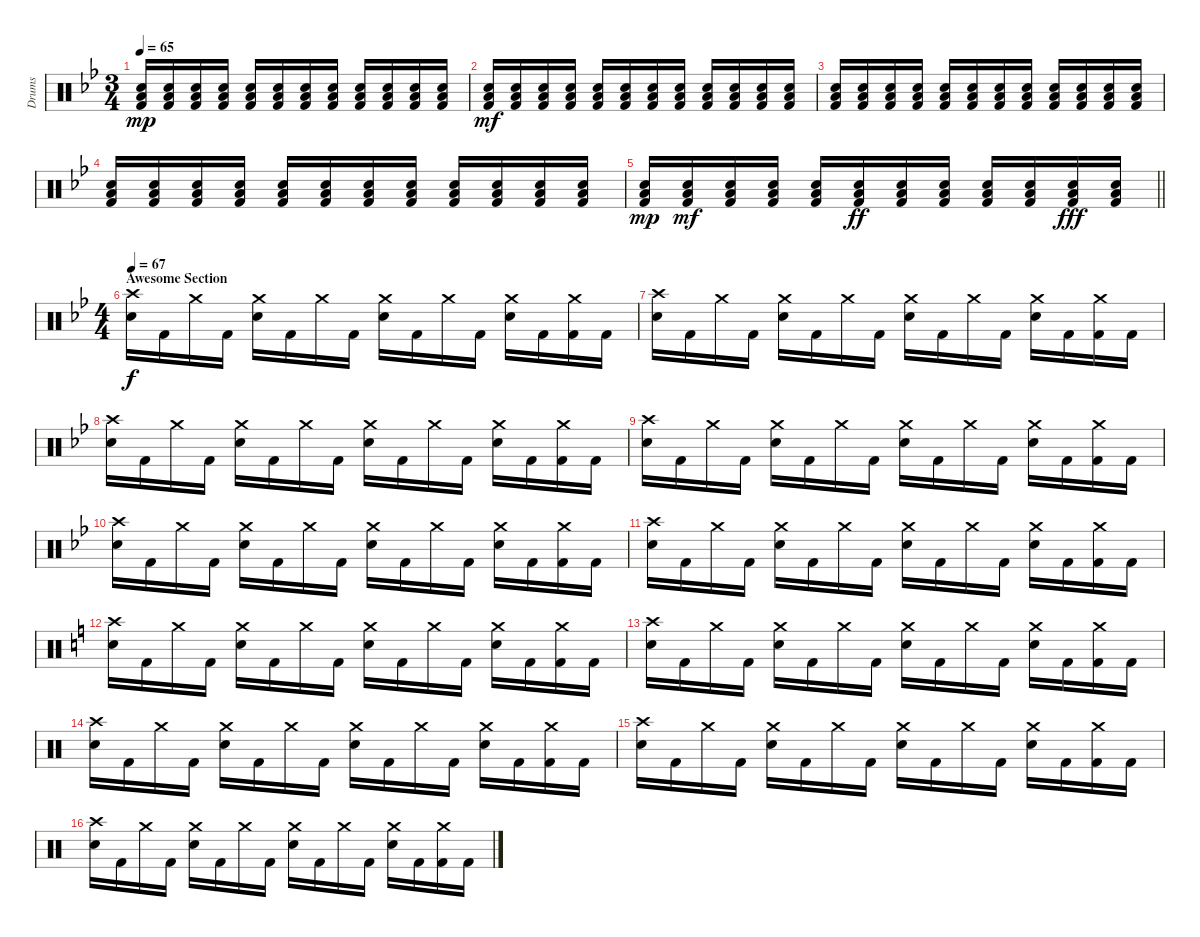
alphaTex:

\track ("Drums" "Drums") {instrument percussion}
\staff {score}
\articulation defaults
\ts (3 4)
\tempo 65
\clef neutral
\ks bb
("Kick (hit) 2" "Electric Snare (hit)" "Low Tom (hit)").16{dy mp} ("Kick (hit) 2" "Electric Snare (hit)" "Low Tom (hit)").16 ("Kick (hit) 2" "Electric Snare (hit)" "Low Tom (hit)").16 ("Kick (hit) 2" "Electric Snare (hit)" "Low Tom (hit)").16 ("Kick (hit) 2" "Electric Snare (hit)" "Low Tom (hit)").16 ("Kick (hit) 2" "Electric Snare (hit)" "Low Tom (hit)").16 ("Kick (hit) 2" "Electric Snare (hit)" "Low Tom (hit)").16 ("Kick (hit) 2" "Electric Snare (hit)" "Low Tom (hit)").16 ("Kick (hit) 2" "Electric Snare (hit)" "Low Tom (hit)").16 ("Kick (hit) 2" "Electric Snare (hit)" "Low Tom (hit)").16 ("Kick (hit) 2" "Electric Snare (hit)" "Low Tom (hit)").16 ("Kick (hit) 2" "Electric Snare (hit)" "Low Tom (hit)").16 |
("Kick (hit) 2" "Electric Snare (hit)" "Low Tom (hit)").16{dy mf} ("Kick (hit) 2" "Electric Snare (hit)" "Low Tom (hit)").16 ("Kick (hit) 2" "Electric Snare (hit)" "Low Tom (hit)").16 ("Kick (hit) 2" "Electric Snare (hit)" "Low Tom (hit)").16 ("Kick (hit) 2" "Electric Snare (hit)" "Low Tom (hit)").16 ("Kick (hit) 2" "Electric Snare (hit)" "Low Tom (hit)").16 ("Kick (hit) 2" "Electric Snare (hit)" "Low Tom (hit)").16 ("Kick (hit) 2" "Electric Snare (hit)" "Low Tom (hit)").16 ("Kick (hit) 2" "Electric Snare (hit)" "Low Tom (hit)").16 ("Kick (hit) 2" "Electric Snare (hit)" "Low Tom (hit)").16 ("Kick (hit) 2" "Electric Snare (hit)" "Low Tom (hit)").16 ("Kick (hit) 2" "Electric Snare (hit)" "Low Tom (hit)").16 |
("Kick (hit) 2" "Electric Snare (hit)" "Low Tom (hit)").16 ("Kick (hit) 2" "Electric Snare (hit)" "Low Tom (hit)").16 ("Kick (hit) 2" "Electric Snare (hit)" "Low Tom (hit)").16 ("Kick (hit) 2" "Electric Snare (hit)" "Low Tom (hit)").16 ("Kick (hit) 2" "Electric Snare (hit)" "Low Tom (hit)").16 ("Kick (hit) 2" "Electric Snare (hit)" "Low Tom (hit)").16 ("Kick (hit) 2" "Electric Snare (hit)" "Low Tom (hit)").16 ("Kick (hit) 2" "Electric Snare (hit)" "Low Tom (hit)").16 ("Kick (hit) 2" "Electric Snare (hit)" "Low Tom (hit)").16 ("Kick (hit) 2" "Electric Snare (hit)" "Low Tom (hit)").16 ("Kick (hit) 2" "Electric Snare (hit)" "Low Tom (hit)").16 ("Kick (hit) 2" "Electric Snare (hit)" "Low Tom (hit)").16 |
("Kick (hit) 2" "Electric Snare (hit)" "Low Tom (hit)").16 ("Kick (hit) 2" "Electric Snare (hit)" "Low Tom (hit)").16 ("Kick (hit) 2" "Electric Snare (hit)" "Low Tom (hit)").16 ("Kick (hit) 2" "Electric Snare (hit)" "Low Tom (hit)").16 ("Kick (hit) 2" "Electric Snare (hit)" "Low Tom (hit)").16 ("Kick (hit) 2" "Electric Snare (hit)" "Low Tom (hit)").16 ("Kick (hit) 2" "Electric Snare (hit)" "Low Tom (hit)").16 ("Kick (hit) 2" "Electric Snare (hit)" "Low Tom (hit)").16 ("Kick (hit) 2" "Electric Snare (hit)" "Low Tom (hit)").16 ("Kick (hit) 2" "Electric Snare (hit)" "Low Tom (hit)").16 ("Kick (hit) 2" "Electric Snare (hit)" "Low Tom (hit)").16 ("Kick (hit) 2" "Electric Snare (hit)" "Low Tom (hit)").16 |
\barLineRight lightlight
("Kick (hit) 2" "Electric Snare (hit)" "Low Tom (hit)").16{dy mp} ("Kick (hit) 2" "Electric Snare (hit)" "Low Tom (hit)").16{dy mf} ("Kick (hit) 2" "Electric Snare (hit)" "Low Tom (hit)").16 ("Kick (hit) 2" "Electric Snare (hit)" "Low Tom (hit)").16 ("Kick (hit) 2" "Electric Snare (hit)" "Low Tom (hit)").16 ("Kick (hit) 2" "Electric Snare (hit)" "Low Tom (hit)").16{dy ff} ("Kick (hit) 2" "Electric Snare (hit)" "Low Tom (hit)").16 ("Kick (hit) 2" "Electric Snare (hit)" "Low Tom (hit)").16 ("Kick (hit) 2" "Electric Snare (hit)" "Low Tom (hit)").16 ("Kick (hit) 2" "Electric Snare (hit)" "Low Tom (hit)").16 ("Kick (hit) 2" "Electric Snare (hit)" "Low Tom (hit)").16{dy fff} ("Kick (hit) 2" "Electric Snare (hit)" "Low Tom (hit)").16 |
\ts (4 4)
\section ("" "Awesome Section")
\tempo 67
("Crash high (hit)" "Electric Snare (hit)").16{dy f} "Kick (hit) 2".16 "Crash medium (hit)".16 "Kick (hit) 2".16 ("Crash medium (hit)" "Electric Snare (hit)").16 "Kick (hit) 2".16 "Crash medium (hit)".16 "Kick (hit) 2".16 ("Crash medium (hit)" "Electric Snare (hit)").16 "Kick (hit) 2".16 "Crash medium (hit)".16 "Kick (hit) 2".16 ("Crash medium (hit)" "Electric Snare (hit)").16 "Kick (hit) 2".16 ("Crash medium (hit)" "Kick (hit) 2").16 "Kick (hit) 2".16 |
("Crash high (hit)" "Electric Snare (hit)").16 "Kick (hit) 2".16 "Crash medium (hit)".16 "Kick (hit) 2".16 ("Crash medium (hit)" "Electric Snare (hit)").16 "Kick (hit) 2".16 "Crash medium (hit)".16 "Kick (hit) 2".16 ("Crash medium (hit)" "Electric Snare (hit)").16 "Kick (hit) 2".16 "Crash medium (hit)".16 "Kick (hit) 2".16 ("Crash medium (hit)" "Electric Snare (hit)").16 "Kick (hit) 2".16 ("Crash medium (hit)" "Kick (hit) 2").16 "Kick (hit) 2".16 |
("Crash high (hit)" "Electric Snare (hit)").16 "Kick (hit) 2".16 "Crash medium (hit)".16 "Kick (hit) 2".16 ("Crash medium (hit)" "Electric Snare (hit)").16 "Kick (hit) 2".16 "Crash medium (hit)".16 "Kick (hit) 2".16 ("Crash medium (hit)" "Electric Snare (hit)").16 "Kick (hit) 2".16 "Crash medium (hit)".16 "Kick (hit) 2".16 ("Crash medium (hit)" "Electric Snare (hit)").16 "Kick (hit) 2".16 ("Crash medium (hit)" "Kick (hit) 2").16 "Kick (hit) 2".16 |
("Crash high (hit)" "Electric Snare (hit)").16 "Kick (hit) 2".16 "Crash medium (hit)".16 "Kick (hit) 2".16 ("Crash medium (hit)" "Electric Snare (hit)").16 "Kick (hit) 2".16 "Crash medium (hit)".16 "Kick (hit) 2".16 ("Crash medium (hit)" "Electric Snare (hit)").16 "Kick (hit) 2".16 "Crash medium (hit)".16 "Kick (hit) 2".16 ("Crash medium (hit)" "Electric Snare (hit)").16 "Kick (hit) 2".16 ("Crash medium (hit)" "Kick (hit) 2").16 "Kick (hit) 2".16 |
("Crash high (hit)" "Electric Snare (hit)").16 "Kick (hit) 2".16 "Crash medium (hit)".16 "Kick (hit) 2".16 ("Crash medium (hit)" "Electric Snare (hit)").16 "Kick (hit) 2".16 "Crash medium (hit)".16 "Kick (hit) 2".16 ("Crash medium (hit)" "Electric Snare (hit)").16 "Kick (hit) 2".16 "Crash medium (hit)".16 "Kick (hit) 2".16 ("Crash medium (hit)" "Electric Snare (hit)").16 "Kick (hit) 2".16 ("Crash medium (hit)" "Kick (hit) 2").16 "Kick (hit) 2".16 |
("Crash high (hit)" "Electric Snare (hit)").16 "Kick (hit) 2".16 "Crash medium (hit)".16 "Kick (hit) 2".16 ("Crash medium (hit)" "Electric Snare (hit)").16 "Kick (hit) 2".16 "Crash medium (hit)".16 "Kick (hit) 2".16 ("Crash medium (hit)" "Electric Snare (hit)").16 "Kick (hit) 2".16 "Crash medium (hit)".16 "Kick (hit) 2".16 ("Crash medium (hit)" "Electric Snare (hit)").16 "Kick (hit) 2".16 ("Crash medium (hit)" "Kick (hit) 2").16 "Kick (hit) 2".16 |
\ks c
("Crash high (hit)" "Electric Snare (hit)").16 "Kick (hit) 2".16 "Crash medium (hit)".16 "Kick (hit) 2".16 ("Crash medium (hit)" "Electric Snare (hit)").16 "Kick (hit) 2".16 "Crash medium (hit)".16 "Kick (hit) 2".16 ("Crash medium (hit)" "Electric Snare (hit)").16 "Kick (hit) 2".16 "Crash medium (hit)".16 "Kick (hit) 2".16 ("Crash medium (hit)" "Electric Snare (hit)").16 "Kick (hit) 2".16 ("Crash medium (hit)" "Kick (hit) 2").16 "Kick (hit) 2".16 |
("Crash high (hit)" "Electric Snare (hit)").16 "Kick (hit) 2".16 "Crash medium (hit)".16 "Kick (hit) 2".16 ("Crash medium (hit)" "Electric Snare (hit)").16 "Kick (hit) 2".16 "Crash medium (hit)".16 "Kick (hit) 2".16 ("Crash medium (hit)" "Electric Snare (hit)").16 "Kick (hit) 2".16 "Crash medium (hit)".16 "Kick (hit) 2".16 ("Crash medium (hit)" "Electric Snare (hit)").16 "Kick (hit) 2".16 ("Crash medium (hit)" "Kick (hit) 2").16 "Kick (hit) 2".16 |
("Crash high (hit)" "Electric Snare (hit)").16 "Kick (hit) 2".16 "Crash medium (hit)".16 "Kick (hit) 2".16 ("Crash medium (hit)" "Electric Snare (hit)").16 "Kick (hit) 2".16 "Crash medium (hit)".16 "Kick (hit) 2".16 ("Crash medium (hit)" "Electric Snare (hit)").16 "Kick (hit) 2".16 "Crash medium (hit)".16 "Kick (hit) 2".16 ("Crash medium (hit)" "Electric Snare (hit)").16 "Kick (hit) 2".16 ("Crash medium (hit)" "Kick (hit) 2").16 "Kick (hit) 2".16 |
("Crash high (hit)" "Electric Snare (hit)").16 "Kick (hit) 2".16 "Crash medium (hit)".16 "Kick (hit) 2".16 ("Crash medium (hit)" "Electric Snare (hit)").16 "Kick (hit) 2".16 "Crash medium (hit)".16 "Kick (hit) 2".16 ("Crash medium (hit)" "Electric Snare (hit)").16 "Kick (hit) 2".16 "Crash medium (hit)".16 "Kick (hit) 2".16 ("Crash medium (hit)" "Electric Snare (hit)").16 "Kick (hit) 2".16 ("Crash medium (hit)" "Kick (hit) 2").16 "Kick (hit) 2".16 |
("Crash high (hit)" "Electric Snare (hit)").16 "Kick (hit) 2".16 "Crash medium (hit)".16 "Kick (hit) 2".16 ("Crash medium (hit)" "Electric Snare (hit)").16 "Kick (hit) 2".16 "Crash medium (hit)".16 "Kick (hit) 2".16 ("Crash medium (hit)" "Electric Snare (hit)").16 "Kick (hit) 2".16 "Crash medium (hit)".16 "Kick (hit) 2".16 ("Crash medium (hit)" "Electric Snare (hit)").16 "Kick (hit) 2".16 ("Crash medium (hit)" "Kick (hit) 2").16 "Kick (hit) 2".16
